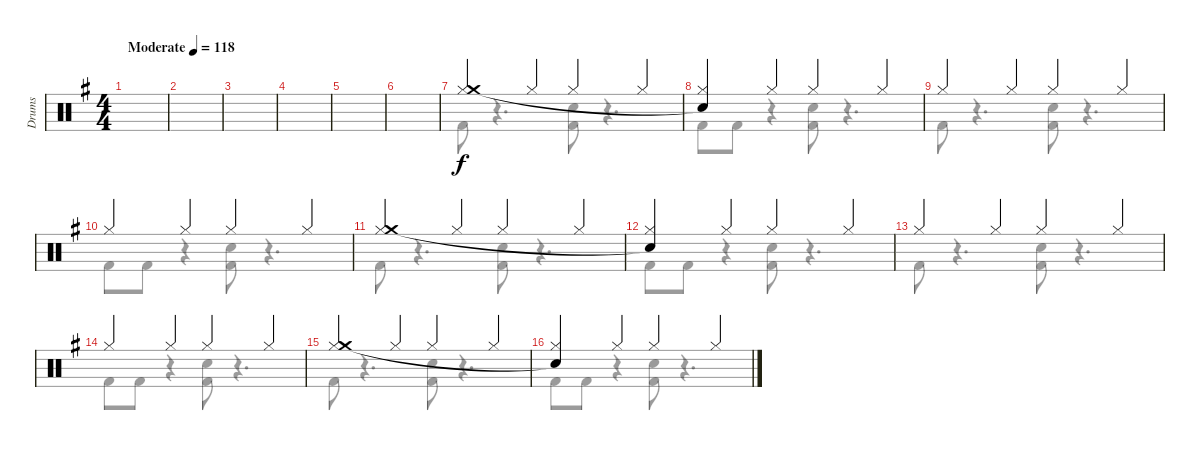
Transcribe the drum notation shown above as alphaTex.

\track ("Drums" "Drums") {instrument percussion}
\staff {score}
\articulation defaults
\voice
\ts (4 4)
\tempo (118 "Moderate")
\clef neutral
\ks eminor
|
|
|
|
|
|
("Hi-Hat (closed)" "Crash medium (hit)").4{volume 3} "Hi-Hat (closed)".4 "Hi-Hat (closed)".4 "Hi-Hat (closed)".4 |
("Hi-Hat (closed)" "Snare (hit)"{t}).4 "Hi-Hat (closed)".4 "Hi-Hat (closed)".4 "Hi-Hat (closed)".4 |
"Hi-Hat (closed)".4 "Hi-Hat (closed)".4 "Hi-Hat (closed)".4 "Hi-Hat (closed)".4 |
"Hi-Hat (closed)".4 "Hi-Hat (closed)".4 "Hi-Hat (closed)".4 "Hi-Hat (closed)".4 |
("Hi-Hat (closed)" "Crash medium (hit)").4{volume 6} "Hi-Hat (closed)".4 "Hi-Hat (closed)".4 "Hi-Hat (closed)".4 |
("Hi-Hat (closed)" "Snare (hit)"{t}).4 "Hi-Hat (closed)".4 "Hi-Hat (closed)".4 "Hi-Hat (closed)".4 |
"Hi-Hat (closed)".4 "Hi-Hat (closed)".4 "Hi-Hat (closed)".4 "Hi-Hat (closed)".4 |
"Hi-Hat (closed)".4 "Hi-Hat (closed)".4 "Hi-Hat (closed)".4 "Hi-Hat (closed)".4 |
("Hi-Hat (closed)" "Crash medium (hit)").4{volume 12} "Hi-Hat (closed)".4 "Hi-Hat (closed)".4 "Hi-Hat (closed)".4 |
("Hi-Hat (closed)" "Snare (hit)"{t}).4 "Hi-Hat (closed)".4 "Hi-Hat (closed)".4 "Hi-Hat (closed)".4
\voice
\clef neutral
\ottava regular
\simile none
\ks eminor
|
|
|
|
|
|
"Kick (hit) 2".8 r.4{d} ("Kick (hit) 2" "Electric Snare (hit)").8 r.4{d} |
"Kick (hit) 2".8 "Kick (hit) 2".8 r.4 ("Kick (hit) 2" "Electric Snare (hit)").8 r.4{d} |
"Kick (hit) 2".8 r.4{d} ("Kick (hit) 2" "Electric Snare (hit)").8 r.4{d} |
"Kick (hit) 2".8 "Kick (hit) 2".8 r.4 ("Kick (hit) 2" "Electric Snare (hit)").8 r.4{d} |
"Kick (hit) 2".8 r.4{d} ("Kick (hit) 2" "Electric Snare (hit)").8 r.4{d} |
"Kick (hit) 2".8 "Kick (hit) 2".8 r.4 ("Kick (hit) 2" "Electric Snare (hit)").8 r.4{d} |
"Kick (hit) 2".8 r.4{d} ("Kick (hit) 2" "Electric Snare (hit)").8 r.4{d} |
"Kick (hit) 2".8 "Kick (hit) 2".8 r.4 ("Kick (hit) 2" "Electric Snare (hit)").8 r.4{d} |
"Kick (hit) 2".8 r.4{d} ("Kick (hit) 2" "Electric Snare (hit)").8 r.4{d} |
"Kick (hit) 2".8 "Kick (hit) 2".8 r.4 ("Kick (hit) 2" "Electric Snare (hit)").8 r.4{d}
